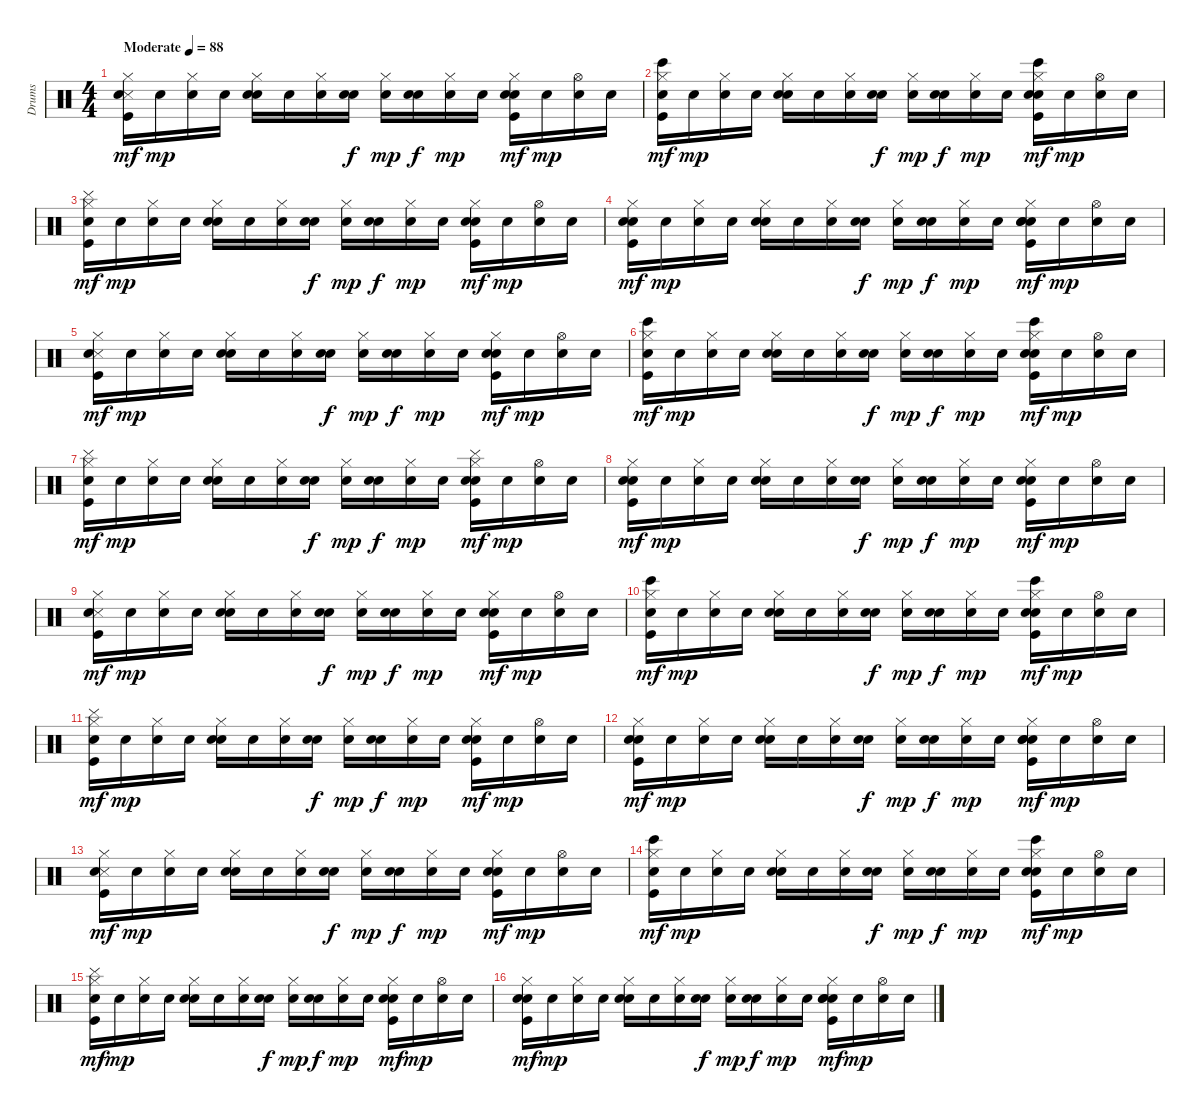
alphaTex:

\track ("Drums" "Drums") {instrument percussion}
\staff {score}
\articulation defaults
\ts (4 4)
\tempo (88 "Moderate")
\clef neutral
\ks c
("Metronome (hit)" "Snare (hit) 2" "Hi-Hat (closed)" "Kick (hit)").16{dy mf} "Snare (hit) 2".16{dy mp} ("Snare (hit) 2" "Hi-Hat (closed)").16 "Snare (hit) 2".16 ("Snare (hit) 2" "Hand Clap (hit)" "Hi-Hat (closed)").16 "Snare (hit) 2".16 ("Snare (hit) 2" "Hi-Hat (closed)").16 ("Snare (hit) 2" "Hand Clap (hit)").16{dy f} ("Snare (hit) 2" "Hi-Hat (closed)").16{dy mp} ("Snare (hit) 2" "Hand Clap (hit)").16{dy f} ("Snare (hit) 2" "Hi-Hat (closed)").16{dy mp} "Snare (hit) 2".16 ("Snare (hit) 2" "Hand Clap (hit)" "Hi-Hat (closed)" "Kick (hit)").16{dy mf} "Snare (hit) 2".16{dy mp} ("Snare (hit) 2" "Hi-Hat (open)").16 "Snare (hit) 2".16 |
("Bongo High (hit)" "Snare (hit) 2" "Hi-Hat (closed)" "Kick (hit)").16{dy mf} "Snare (hit) 2".16{dy mp} ("Snare (hit) 2" "Hi-Hat (closed)").16 "Snare (hit) 2".16 ("Snare (hit) 2" "Hand Clap (hit)" "Hi-Hat (closed)").16 "Snare (hit) 2".16 ("Snare (hit) 2" "Hi-Hat (closed)").16 ("Snare (hit) 2" "Hand Clap (hit)").16{dy f} ("Snare (hit) 2" "Hi-Hat (closed)").16{dy mp} ("Snare (hit) 2" "Hand Clap (hit)").16{dy f} ("Snare (hit) 2" "Hi-Hat (closed)").16{dy mp} "Snare (hit) 2".16 ("Bongo High (hit)" "Snare (hit) 2" "Hand Clap (hit)" "Hi-Hat (closed)" "Kick (hit)").16{dy mf} "Snare (hit) 2".16{dy mp} ("Snare (hit) 2" "Hi-Hat (open)").16 "Snare (hit) 2".16 |
("Cymbal (hit)" "Snare (hit) 2" "Hi-Hat (closed)" "Kick (hit)").16{dy mf} "Snare (hit) 2".16{dy mp} ("Snare (hit) 2" "Hi-Hat (closed)").16 "Snare (hit) 2".16 ("Snare (hit) 2" "Hand Clap (hit)" "Hi-Hat (closed)").16 "Snare (hit) 2".16 ("Snare (hit) 2" "Hi-Hat (closed)").16 ("Snare (hit) 2" "Hand Clap (hit)").16{dy f} ("Snare (hit) 2" "Hi-Hat (closed)").16{dy mp} ("Snare (hit) 2" "Hand Clap (hit)").16{dy f} ("Snare (hit) 2" "Hi-Hat (closed)").16{dy mp} "Snare (hit) 2".16 ("Snare (hit) 2" "Hand Clap (hit)" "Hi-Hat (closed)" "Kick (hit)").16{dy mf} "Snare (hit) 2".16{dy mp} ("Snare (hit) 2" "Hi-Hat (open)").16 "Snare (hit) 2".16 |
("Snare (hit) 2" "Snare (hit) 2" "Hi-Hat (closed)" "Kick (hit)").16{dy mf} "Snare (hit) 2".16{dy mp} ("Snare (hit) 2" "Hi-Hat (closed)").16 "Snare (hit) 2".16 ("Snare (hit) 2" "Hand Clap (hit)" "Hi-Hat (closed)").16 "Snare (hit) 2".16 ("Snare (hit) 2" "Hi-Hat (closed)").16 ("Snare (hit) 2" "Hand Clap (hit)").16{dy f} ("Snare (hit) 2" "Hi-Hat (closed)").16{dy mp} ("Snare (hit) 2" "Hand Clap (hit)").16{dy f} ("Snare (hit) 2" "Hi-Hat (closed)").16{dy mp} "Snare (hit) 2".16 ("Snare (hit) 2" "Snare (hit) 2" "Hand Clap (hit)" "Hi-Hat (closed)" "Kick (hit)").16{dy mf} "Snare (hit) 2".16{dy mp} ("Snare (hit) 2" "Hi-Hat (open)").16 "Snare (hit) 2".16 |
("Metronome (hit)" "Snare (hit) 2" "Hi-Hat (closed)" "Kick (hit)").16{dy mf} "Snare (hit) 2".16{dy mp} ("Snare (hit) 2" "Hi-Hat (closed)").16 "Snare (hit) 2".16 ("Snare (hit) 2" "Hand Clap (hit)" "Hi-Hat (closed)").16 "Snare (hit) 2".16 ("Snare (hit) 2" "Hi-Hat (closed)").16 ("Snare (hit) 2" "Hand Clap (hit)").16{dy f} ("Snare (hit) 2" "Hi-Hat (closed)").16{dy mp} ("Snare (hit) 2" "Hand Clap (hit)").16{dy f} ("Snare (hit) 2" "Hi-Hat (closed)").16{dy mp} "Snare (hit) 2".16 ("Snare (hit) 2" "Hand Clap (hit)" "Hi-Hat (closed)" "Kick (hit)").16{dy mf} "Snare (hit) 2".16{dy mp} ("Snare (hit) 2" "Hi-Hat (open)").16 "Snare (hit) 2".16 |
("Bongo High (hit)" "Snare (hit) 2" "Hi-Hat (closed)" "Kick (hit)").16{dy mf} "Snare (hit) 2".16{dy mp} ("Snare (hit) 2" "Hi-Hat (closed)").16 "Snare (hit) 2".16 ("Snare (hit) 2" "Hand Clap (hit)" "Hi-Hat (closed)").16 "Snare (hit) 2".16 ("Snare (hit) 2" "Hi-Hat (closed)").16 ("Snare (hit) 2" "Hand Clap (hit)").16{dy f} ("Snare (hit) 2" "Hi-Hat (closed)").16{dy mp} ("Snare (hit) 2" "Hand Clap (hit)").16{dy f} ("Snare (hit) 2" "Hi-Hat (closed)").16{dy mp} "Snare (hit) 2".16 ("Bongo High (hit)" "Snare (hit) 2" "Hand Clap (hit)" "Hi-Hat (closed)" "Kick (hit)").16{dy mf} "Snare (hit) 2".16{dy mp} ("Snare (hit) 2" "Hi-Hat (open)").16 "Snare (hit) 2".16 |
("Cymbal (hit)" "Snare (hit) 2" "Hi-Hat (closed)" "Kick (hit)").16{dy mf} "Snare (hit) 2".16{dy mp} ("Snare (hit) 2" "Hi-Hat (closed)").16 "Snare (hit) 2".16 ("Snare (hit) 2" "Hand Clap (hit)" "Hi-Hat (closed)").16 "Snare (hit) 2".16 ("Snare (hit) 2" "Hi-Hat (closed)").16 ("Snare (hit) 2" "Hand Clap (hit)").16{dy f} ("Snare (hit) 2" "Hi-Hat (closed)").16{dy mp} ("Snare (hit) 2" "Hand Clap (hit)").16{dy f} ("Snare (hit) 2" "Hi-Hat (closed)").16{dy mp} "Snare (hit) 2".16 ("Cymbal (hit)" "Snare (hit) 2" "Hand Clap (hit)" "Hi-Hat (closed)" "Kick (hit)").16{dy mf} "Snare (hit) 2".16{dy mp} ("Snare (hit) 2" "Hi-Hat (open)").16 "Snare (hit) 2".16 |
("Snare (hit) 2" "Snare (hit) 2" "Hi-Hat (closed)" "Kick (hit)").16{dy mf} "Snare (hit) 2".16{dy mp} ("Snare (hit) 2" "Hi-Hat (closed)").16 "Snare (hit) 2".16 ("Snare (hit) 2" "Hand Clap (hit)" "Hi-Hat (closed)").16 "Snare (hit) 2".16 ("Snare (hit) 2" "Hi-Hat (closed)").16 ("Snare (hit) 2" "Hand Clap (hit)").16{dy f} ("Snare (hit) 2" "Hi-Hat (closed)").16{dy mp} ("Snare (hit) 2" "Hand Clap (hit)").16{dy f} ("Snare (hit) 2" "Hi-Hat (closed)").16{dy mp} "Snare (hit) 2".16 ("Snare (hit) 2" "Hand Clap (hit)" "Hi-Hat (closed)" "Kick (hit)").16{dy mf} "Snare (hit) 2".16{dy mp} ("Snare (hit) 2" "Hi-Hat (open)").16 "Snare (hit) 2".16 |
("Metronome (hit)" "Snare (hit) 2" "Hi-Hat (closed)" "Kick (hit)").16{dy mf} "Snare (hit) 2".16{dy mp} ("Snare (hit) 2" "Hi-Hat (closed)").16 "Snare (hit) 2".16 ("Snare (hit) 2" "Hand Clap (hit)" "Hi-Hat (closed)").16 "Snare (hit) 2".16 ("Snare (hit) 2" "Hi-Hat (closed)").16 ("Snare (hit) 2" "Hand Clap (hit)").16{dy f} ("Snare (hit) 2" "Hi-Hat (closed)").16{dy mp} ("Snare (hit) 2" "Hand Clap (hit)").16{dy f} ("Snare (hit) 2" "Hi-Hat (closed)").16{dy mp} "Snare (hit) 2".16 ("Snare (hit) 2" "Hand Clap (hit)" "Hi-Hat (closed)" "Kick (hit)").16{dy mf} "Snare (hit) 2".16{dy mp} ("Snare (hit) 2" "Hi-Hat (open)").16 "Snare (hit) 2".16 |
("Bongo High (hit)" "Snare (hit) 2" "Hi-Hat (closed)" "Kick (hit)").16{dy mf} "Snare (hit) 2".16{dy mp} ("Snare (hit) 2" "Hi-Hat (closed)").16 "Snare (hit) 2".16 ("Snare (hit) 2" "Hand Clap (hit)" "Hi-Hat (closed)").16 "Snare (hit) 2".16 ("Snare (hit) 2" "Hi-Hat (closed)").16 ("Snare (hit) 2" "Hand Clap (hit)").16{dy f} ("Snare (hit) 2" "Hi-Hat (closed)").16{dy mp} ("Snare (hit) 2" "Hand Clap (hit)").16{dy f} ("Snare (hit) 2" "Hi-Hat (closed)").16{dy mp} "Snare (hit) 2".16 ("Bongo High (hit)" "Snare (hit) 2" "Hand Clap (hit)" "Hi-Hat (closed)" "Kick (hit)").16{dy mf} "Snare (hit) 2".16{dy mp} ("Snare (hit) 2" "Hi-Hat (open)").16 "Snare (hit) 2".16 |
("Cymbal (hit)" "Snare (hit) 2" "Hi-Hat (closed)" "Kick (hit)").16{dy mf} "Snare (hit) 2".16{dy mp} ("Snare (hit) 2" "Hi-Hat (closed)").16 "Snare (hit) 2".16 ("Snare (hit) 2" "Hand Clap (hit)" "Hi-Hat (closed)").16 "Snare (hit) 2".16 ("Snare (hit) 2" "Hi-Hat (closed)").16 ("Snare (hit) 2" "Hand Clap (hit)").16{dy f} ("Snare (hit) 2" "Hi-Hat (closed)").16{dy mp} ("Snare (hit) 2" "Hand Clap (hit)").16{dy f} ("Snare (hit) 2" "Hi-Hat (closed)").16{dy mp} "Snare (hit) 2".16 ("Snare (hit) 2" "Hand Clap (hit)" "Hi-Hat (closed)" "Kick (hit)").16{dy mf} "Snare (hit) 2".16{dy mp} ("Snare (hit) 2" "Hi-Hat (open)").16 "Snare (hit) 2".16 |
("Snare (hit) 2" "Snare (hit) 2" "Hi-Hat (closed)" "Kick (hit)").16{dy mf} "Snare (hit) 2".16{dy mp} ("Snare (hit) 2" "Hi-Hat (closed)").16 "Snare (hit) 2".16 ("Snare (hit) 2" "Hand Clap (hit)" "Hi-Hat (closed)").16 "Snare (hit) 2".16 ("Snare (hit) 2" "Hi-Hat (closed)").16 ("Snare (hit) 2" "Hand Clap (hit)").16{dy f} ("Snare (hit) 2" "Hi-Hat (closed)").16{dy mp} ("Snare (hit) 2" "Hand Clap (hit)").16{dy f} ("Snare (hit) 2" "Hi-Hat (closed)").16{dy mp} "Snare (hit) 2".16 ("Snare (hit) 2" "Snare (hit) 2" "Hand Clap (hit)" "Hi-Hat (closed)" "Kick (hit)").16{dy mf} "Snare (hit) 2".16{dy mp} ("Snare (hit) 2" "Hi-Hat (open)").16 "Snare (hit) 2".16 |
("Metronome (hit)" "Snare (hit) 2" "Hi-Hat (closed)" "Kick (hit)").16{dy mf} "Snare (hit) 2".16{dy mp} ("Snare (hit) 2" "Hi-Hat (closed)").16 "Snare (hit) 2".16 ("Snare (hit) 2" "Hand Clap (hit)" "Hi-Hat (closed)").16 "Snare (hit) 2".16 ("Snare (hit) 2" "Hi-Hat (closed)").16 ("Snare (hit) 2" "Hand Clap (hit)").16{dy f} ("Snare (hit) 2" "Hi-Hat (closed)").16{dy mp} ("Snare (hit) 2" "Hand Clap (hit)").16{dy f} ("Snare (hit) 2" "Hi-Hat (closed)").16{dy mp} "Snare (hit) 2".16 ("Snare (hit) 2" "Hand Clap (hit)" "Hi-Hat (closed)" "Kick (hit)").16{dy mf} "Snare (hit) 2".16{dy mp} ("Snare (hit) 2" "Hi-Hat (open)").16 "Snare (hit) 2".16 |
("Bongo High (hit)" "Snare (hit) 2" "Hi-Hat (closed)" "Kick (hit)").16{dy mf} "Snare (hit) 2".16{dy mp} ("Snare (hit) 2" "Hi-Hat (closed)").16 "Snare (hit) 2".16 ("Snare (hit) 2" "Hand Clap (hit)" "Hi-Hat (closed)").16 "Snare (hit) 2".16 ("Snare (hit) 2" "Hi-Hat (closed)").16 ("Snare (hit) 2" "Hand Clap (hit)").16{dy f} ("Snare (hit) 2" "Hi-Hat (closed)").16{dy mp} ("Snare (hit) 2" "Hand Clap (hit)").16{dy f} ("Snare (hit) 2" "Hi-Hat (closed)").16{dy mp} "Snare (hit) 2".16 ("Bongo High (hit)" "Snare (hit) 2" "Hand Clap (hit)" "Hi-Hat (closed)" "Kick (hit)").16{dy mf} "Snare (hit) 2".16{dy mp} ("Snare (hit) 2" "Hi-Hat (open)").16 "Snare (hit) 2".16 |
("Cymbal (hit)" "Snare (hit) 2" "Hi-Hat (closed)" "Kick (hit)").16{dy mf} "Snare (hit) 2".16{dy mp} ("Snare (hit) 2" "Hi-Hat (closed)").16 "Snare (hit) 2".16 ("Snare (hit) 2" "Hand Clap (hit)" "Hi-Hat (closed)").16 "Snare (hit) 2".16 ("Snare (hit) 2" "Hi-Hat (closed)").16 ("Snare (hit) 2" "Hand Clap (hit)").16{dy f} ("Snare (hit) 2" "Hi-Hat (closed)").16{dy mp} ("Snare (hit) 2" "Hand Clap (hit)").16{dy f} ("Snare (hit) 2" "Hi-Hat (closed)").16{dy mp} "Snare (hit) 2".16 ("Snare (hit) 2" "Hand Clap (hit)" "Hi-Hat (closed)" "Kick (hit)").16{dy mf} "Snare (hit) 2".16{dy mp} ("Snare (hit) 2" "Hi-Hat (open)").16 "Snare (hit) 2".16 |
("Snare (hit) 2" "Snare (hit) 2" "Hi-Hat (closed)" "Kick (hit)").16{dy mf} "Snare (hit) 2".16{dy mp} ("Snare (hit) 2" "Hi-Hat (closed)").16 "Snare (hit) 2".16 ("Snare (hit) 2" "Hand Clap (hit)" "Hi-Hat (closed)").16 "Snare (hit) 2".16 ("Snare (hit) 2" "Hi-Hat (closed)").16 ("Snare (hit) 2" "Hand Clap (hit)").16{dy f} ("Snare (hit) 2" "Hi-Hat (closed)").16{dy mp} ("Snare (hit) 2" "Hand Clap (hit)").16{dy f} ("Snare (hit) 2" "Hi-Hat (closed)").16{dy mp} "Snare (hit) 2".16 ("Snare (hit) 2" "Snare (hit) 2" "Hand Clap (hit)" "Hi-Hat (closed)" "Kick (hit)").16{dy mf} "Snare (hit) 2".16{dy mp} ("Snare (hit) 2" "Hi-Hat (open)").16 "Snare (hit) 2".16
